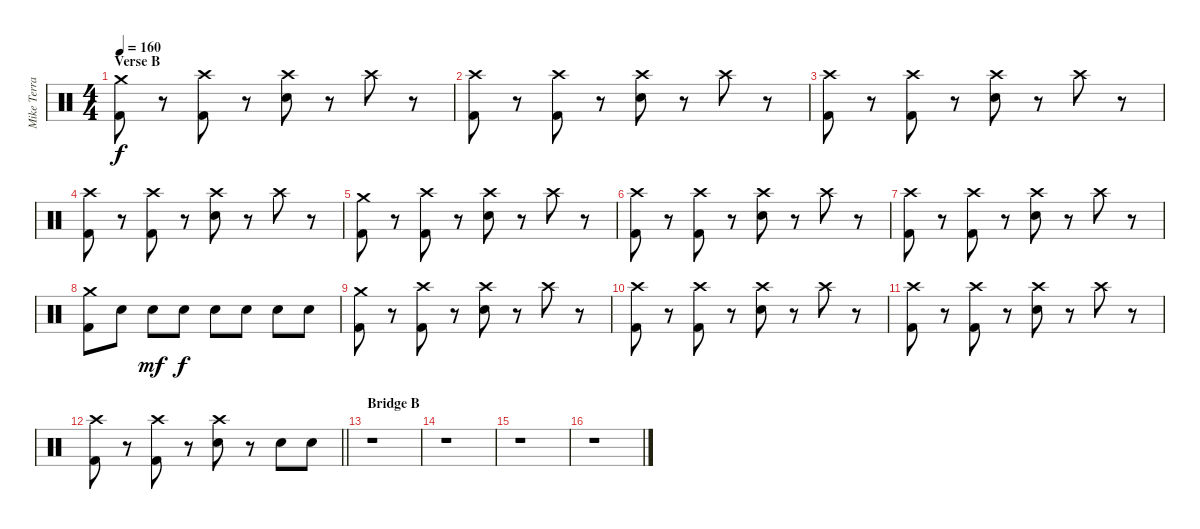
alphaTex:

\track ("Mike Terrana" "Mike Terra") {instrument percussion}
\staff {score}
\articulation defaults
\ts (4 4)
\section ("" "Verse B")
\tempo 160
\clef neutral
\ks c
("Crash medium (hit)" "Kick (hit) 2").8{dy f} r.8 ("Crash high (hit)" "Kick (hit) 2").8 r.8 ("Crash high (hit)" "Snare (hit) 2").8 r.8 "Crash high (hit)".8 r.8 |
("Crash high (hit)" "Kick (hit) 2").8 r.8 ("Crash high (hit)" "Kick (hit) 2").8 r.8 ("Crash high (hit)" "Snare (hit) 2").8 r.8 "Crash high (hit)".8 r.8 |
("Crash high (hit)" "Kick (hit) 2").8 r.8 ("Crash high (hit)" "Kick (hit) 2").8 r.8 ("Crash high (hit)" "Snare (hit) 2").8 r.8 "Crash high (hit)".8 r.8 |
("Crash high (hit)" "Kick (hit) 2").8 r.8 ("Crash high (hit)" "Kick (hit) 2").8 r.8 ("Crash high (hit)" "Snare (hit) 2").8 r.8 "Crash high (hit)".8 r.8 |
("Crash medium (hit)" "Kick (hit) 2").8 r.8 ("Crash high (hit)" "Kick (hit) 2").8 r.8 ("Crash high (hit)" "Snare (hit) 2").8 r.8 "Crash high (hit)".8 r.8 |
("Crash high (hit)" "Kick (hit) 2").8 r.8 ("Crash high (hit)" "Kick (hit) 2").8 r.8 ("Crash high (hit)" "Snare (hit) 2").8 r.8 "Crash high (hit)".8 r.8 |
("Crash high (hit)" "Kick (hit) 2").8 r.8 ("Crash high (hit)" "Kick (hit) 2").8 r.8 ("Crash high (hit)" "Snare (hit) 2").8 r.8 "Crash high (hit)".8 r.8 |
("Crash medium (hit)" "Kick (hit) 2").8 "Snare (hit) 2".8 "Snare (hit) 2".8{dy mf} "Snare (hit) 2".8{dy f} "Snare (hit) 2".8 "Snare (hit) 2".8 "Snare (hit) 2".8 "Snare (hit) 2".8 |
("Crash medium (hit)" "Kick (hit) 2").8 r.8 ("Crash high (hit)" "Kick (hit) 2").8 r.8 ("Crash high (hit)" "Snare (hit) 2").8 r.8 "Crash high (hit)".8 r.8 |
("Crash high (hit)" "Kick (hit) 2").8 r.8 ("Crash high (hit)" "Kick (hit) 2").8 r.8 ("Crash high (hit)" "Snare (hit) 2").8 r.8 "Crash high (hit)".8 r.8 |
("Crash high (hit)" "Kick (hit) 2").8 r.8 ("Crash high (hit)" "Kick (hit) 2").8 r.8 ("Crash high (hit)" "Snare (hit) 2").8 r.8 "Crash high (hit)".8 r.8 |
\barLineRight lightlight
("Crash high (hit)" "Kick (hit) 2").8 r.8 ("Crash high (hit)" "Kick (hit) 2").8 r.8 ("Crash high (hit)" "Snare (hit) 2").8 r.8 "Snare (hit) 2".8 "Snare (hit) 2".8 |
\section ("" "Bridge B")
r.1 |
r.1 |
r.1 |
r.1
